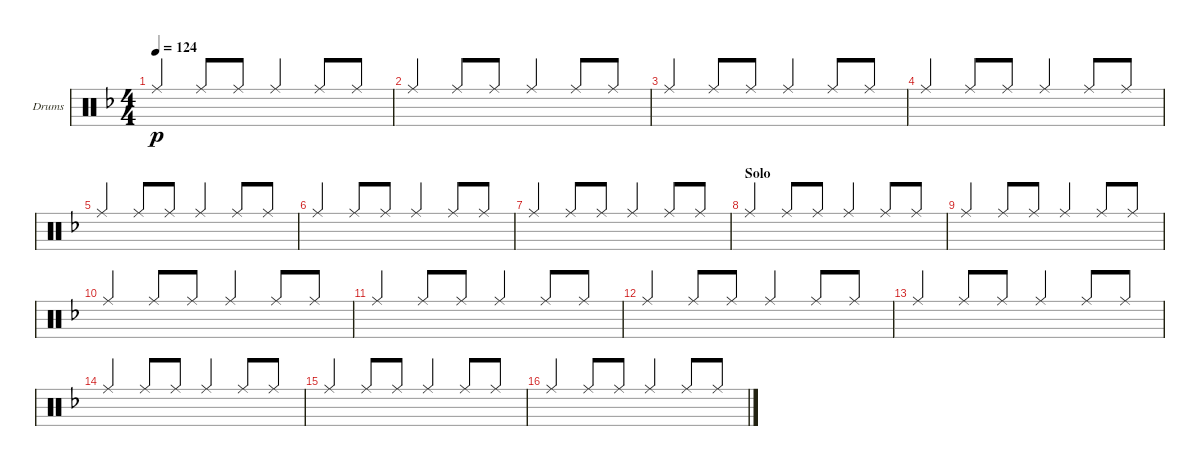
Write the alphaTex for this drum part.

\bracketExtendMode groupsimilarinstruments
\firstSystemTrackNameOrientation horizontal
\otherSystemsTrackNameOrientation horizontal
\track ("Ride Cymbal" "Drums") {instrument percussion}
\staff {score}
\articulation defaults
\ts (4 4)
\tempo 124
\clef neutral
\scale
0.333333
\ks dminor "Ride (middle)".4{dy p beam invert} "Ride (middle)".8{beam invert} "Ride (middle)".8 "Ride (middle)".4{beam invert} "Ride (middle)".8{beam invert} "Ride (middle)".8
|
\scale
0.333333 "Ride (middle)".4{beam invert} "Ride (middle)".8{beam invert} "Ride (middle)".8 "Ride (middle)".4{beam invert} "Ride (middle)".8{beam invert} "Ride (middle)".8 |
\scale
0.333333 "Ride (middle)".4{beam invert} "Ride (middle)".8{beam invert} "Ride (middle)".8 "Ride (middle)".4{beam invert} "Ride (middle)".8{beam invert} "Ride (middle)".8 |
\scale
0.333333 "Ride (middle)".4{beam invert} "Ride (middle)".8{beam invert} "Ride (middle)".8 "Ride (middle)".4{beam invert} "Ride (middle)".8{beam invert} "Ride (middle)".8 |
\scale
0.333333 "Ride (middle)".4{beam invert} "Ride (middle)".8{beam invert} "Ride (middle)".8 "Ride (middle)".4{beam invert} "Ride (middle)".8{beam invert} "Ride (middle)".8 |
\scale
0.333333 "Ride (middle)".4{beam invert} "Ride (middle)".8{beam invert} "Ride (middle)".8 "Ride (middle)".4{beam invert} "Ride (middle)".8{beam invert} "Ride (middle)".8 |
\scale
0.333333 "Ride (middle)".4{beam invert} "Ride (middle)".8{beam invert} "Ride (middle)".8 "Ride (middle)".4{beam invert} "Ride (middle)".8{beam invert} "Ride (middle)".8 |
\section ("" "Solo")
\scale
0.333333 "Ride (middle)".4{beam invert} "Ride (middle)".8{beam invert} "Ride (middle)".8 "Ride (middle)".4{beam invert} "Ride (middle)".8{beam invert} "Ride (middle)".8 |
\scale
0.333333 "Ride (middle)".4{beam invert} "Ride (middle)".8{beam invert} "Ride (middle)".8 "Ride (middle)".4{beam invert} "Ride (middle)".8{beam invert} "Ride (middle)".8 |
\scale
0.333333 "Ride (middle)".4{beam invert} "Ride (middle)".8{beam invert} "Ride (middle)".8 "Ride (middle)".4{beam invert} "Ride (middle)".8{beam invert} "Ride (middle)".8 |
\scale
0.333333 "Ride (middle)".4{beam invert} "Ride (middle)".8{beam invert} "Ride (middle)".8 "Ride (middle)".4{beam invert} "Ride (middle)".8{beam invert} "Ride (middle)".8 |
\scale
0.333333 "Ride (middle)".4{beam invert} "Ride (middle)".8{beam invert} "Ride (middle)".8 "Ride (middle)".4{beam invert} "Ride (middle)".8{beam invert} "Ride (middle)".8 |
\scale
0.333333 "Ride (middle)".4{beam invert} "Ride (middle)".8{beam invert} "Ride (middle)".8 "Ride (middle)".4{beam invert} "Ride (middle)".8{beam invert} "Ride (middle)".8 |
\scale
0.333333 "Ride (middle)".4{beam invert} "Ride (middle)".8{beam invert} "Ride (middle)".8 "Ride (middle)".4{beam invert} "Ride (middle)".8{beam invert} "Ride (middle)".8 |
\scale
0.333333 "Ride (middle)".4{beam invert} "Ride (middle)".8{beam invert} "Ride (middle)".8 "Ride (middle)".4{beam invert} "Ride (middle)".8{beam invert} "Ride (middle)".8 |
\scale
0.333333 "Ride (middle)".4{beam invert} "Ride (middle)".8{beam invert} "Ride (middle)".8 "Ride (middle)".4{beam invert} "Ride (middle)".8{beam invert} "Ride (middle)".8
